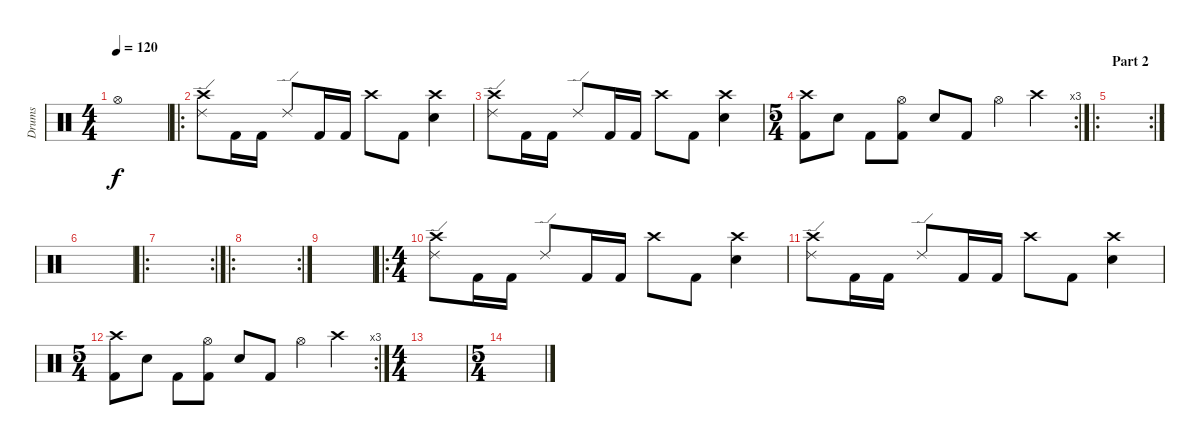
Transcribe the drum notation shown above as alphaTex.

\track ("Drums" "Drums") {instrument percussion}
\staff {score}
\articulation defaults
\ts (4 4)
\tempo 120
\clef neutral
\ks c "Hi-Hat (open)"{t}.1{dy f}
|
\ro
("Crash high (hit)" "Ride (edge) 2").8 "Kick (hit) 2".16 "Kick (hit) 2".16 "Ride (edge) 2".8 "Kick (hit) 2".16 "Kick (hit) 2".16 "Crash high (hit)".8 "Kick (hit) 2".8 ("Crash high (hit)" "Electric Snare (hit)").4 |
("Crash high (hit)" "Ride (edge) 2").8 "Kick (hit) 2".16 "Kick (hit) 2".16 "Ride (edge) 2".8 "Kick (hit) 2".16 "Kick (hit) 2".16 "Crash high (hit)".8 "Kick (hit) 2".8 ("Crash high (hit)" "Electric Snare (hit)").4 |
\rc 3
\ts (5 4)
("Crash high (hit)" "Kick (hit) 2").8 "Snare (hit) 2".8 "Kick (hit) 2".8 ("Kick (hit) 2" "Hi-Hat (open)").8 "Electric Snare (hit)".8 "Kick (hit) 2".8 "Hi-Hat (open)".4 "Crash high (hit)".4 |
\ro
\rc 2
\section ("" "Part 2")
|
|
\ro
\rc 2
|
\ro
\rc 2
|
|
\ro
\ts (4 4)
("Crash high (hit)" "Ride (edge) 2").8 "Kick (hit) 2".16 "Kick (hit) 2".16 "Ride (edge) 2".8 "Kick (hit) 2".16 "Kick (hit) 2".16 "Crash high (hit)".8 "Kick (hit) 2".8 ("Crash high (hit)" "Electric Snare (hit)").4 |
("Crash high (hit)" "Ride (edge) 2").8 "Kick (hit) 2".16 "Kick (hit) 2".16 "Ride (edge) 2".8 "Kick (hit) 2".16 "Kick (hit) 2".16 "Crash high (hit)".8 "Kick (hit) 2".8 ("Crash high (hit)" "Electric Snare (hit)").4 |
\rc 3
\ts (5 4)
("Crash high (hit)" "Kick (hit) 2").8 "Snare (hit) 2".8 "Kick (hit) 2".8 ("Kick (hit) 2" "Hi-Hat (open)").8 "Electric Snare (hit)".8 "Kick (hit) 2".8 "Hi-Hat (open)".4 "Crash high (hit)".4 |
\ts (4 4)
|
\ts (5 4)
